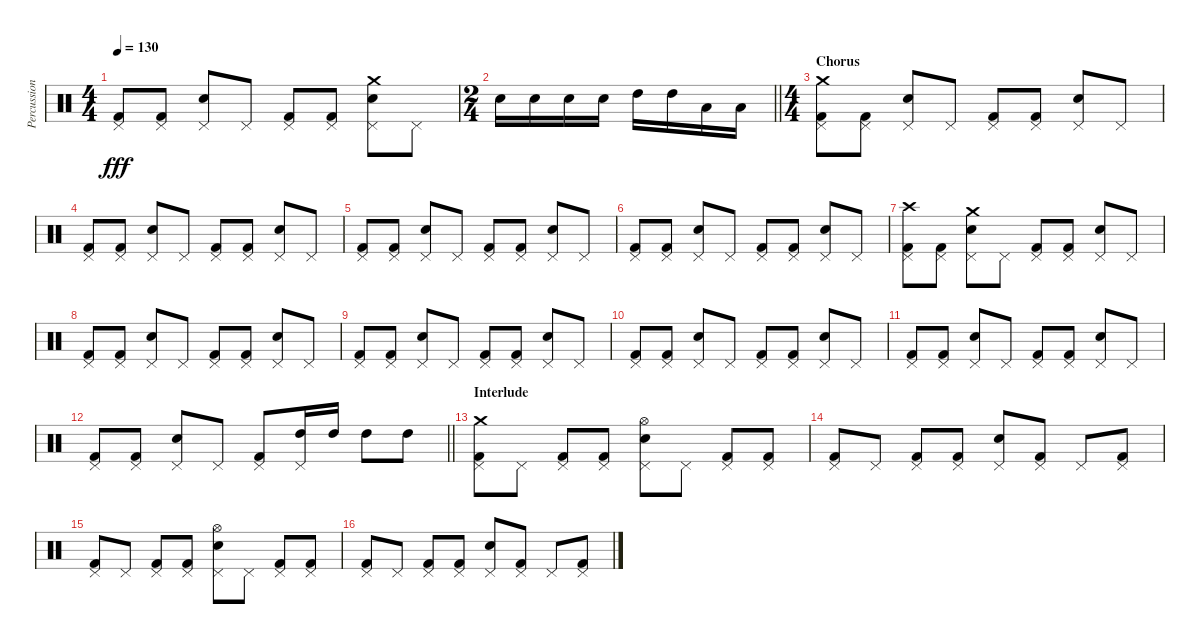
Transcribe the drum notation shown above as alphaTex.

\track ("Percussion" "Percussion") {instrument percussion}
\staff {score}
\articulation defaults
\ts (4 4)
\tempo 130
\clef neutral
\ks c
("Pedal Hi-Hat (hit)" "Kick (hit) 2").8{dy fff} ("Pedal Hi-Hat (hit)" "Kick (hit) 2").8 ("Pedal Hi-Hat (hit)" "Electric Snare (hit)").8 "Pedal Hi-Hat (hit)".8 ("Pedal Hi-Hat (hit)" "Kick (hit) 2").8 ("Pedal Hi-Hat (hit)" "Kick (hit) 2").8 ("Pedal Hi-Hat (hit)" "Crash medium (hit)" "Electric Snare (hit)").8 "Pedal Hi-Hat (hit)".8 |
\ts (2 4)
\barLineRight lightlight "Electric Snare (hit)".16 "Electric Snare (hit)".16 "Electric Snare (hit)".16 "Electric Snare (hit)".16 "High Tom (hit)".16 "High Tom (hit)".16 "Low Tom (hit)".16 "Low Tom (hit)".16
|
\ts (4 4)
\section ("" "Chorus")
("Pedal Hi-Hat (hit)" "Crash medium (hit)" "Kick (hit) 2").8 ("Pedal Hi-Hat (hit)" "Kick (hit) 2").8 ("Pedal Hi-Hat (hit)" "Electric Snare (hit)").8 "Pedal Hi-Hat (hit)".8 ("Pedal Hi-Hat (hit)" "Kick (hit) 2").8 ("Pedal Hi-Hat (hit)" "Kick (hit) 2").8 ("Pedal Hi-Hat (hit)" "Electric Snare (hit)").8 "Pedal Hi-Hat (hit)".8 |
("Pedal Hi-Hat (hit)" "Kick (hit) 2").8 ("Pedal Hi-Hat (hit)" "Kick (hit) 2").8 ("Pedal Hi-Hat (hit)" "Electric Snare (hit)").8 "Pedal Hi-Hat (hit)".8 ("Pedal Hi-Hat (hit)" "Kick (hit) 2").8 ("Pedal Hi-Hat (hit)" "Kick (hit) 2").8 ("Pedal Hi-Hat (hit)" "Electric Snare (hit)").8 "Pedal Hi-Hat (hit)".8 |
("Pedal Hi-Hat (hit)" "Kick (hit) 2").8 ("Pedal Hi-Hat (hit)" "Kick (hit) 2").8 ("Pedal Hi-Hat (hit)" "Electric Snare (hit)").8 "Pedal Hi-Hat (hit)".8 ("Pedal Hi-Hat (hit)" "Kick (hit) 2").8 ("Pedal Hi-Hat (hit)" "Kick (hit) 2").8 ("Pedal Hi-Hat (hit)" "Electric Snare (hit)").8 "Pedal Hi-Hat (hit)".8 |
("Pedal Hi-Hat (hit)" "Kick (hit) 2").8 ("Pedal Hi-Hat (hit)" "Kick (hit) 2").8 ("Pedal Hi-Hat (hit)" "Electric Snare (hit)").8 "Pedal Hi-Hat (hit)".8 ("Pedal Hi-Hat (hit)" "Kick (hit) 2").8 ("Pedal Hi-Hat (hit)" "Kick (hit) 2").8 ("Pedal Hi-Hat (hit)" "Electric Snare (hit)").8 "Pedal Hi-Hat (hit)".8 |
("Pedal Hi-Hat (hit)" "Crash high (hit)" "Kick (hit) 2").8 ("Pedal Hi-Hat (hit)" "Kick (hit) 2").8 ("Pedal Hi-Hat (hit)" "Crash medium (hit)" "Electric Snare (hit)").8 "Pedal Hi-Hat (hit)".8 ("Pedal Hi-Hat (hit)" "Kick (hit) 2").8 ("Pedal Hi-Hat (hit)" "Kick (hit) 2").8 ("Pedal Hi-Hat (hit)" "Electric Snare (hit)").8 "Pedal Hi-Hat (hit)".8 |
("Pedal Hi-Hat (hit)" "Kick (hit) 2").8 ("Pedal Hi-Hat (hit)" "Kick (hit) 2").8 ("Pedal Hi-Hat (hit)" "Electric Snare (hit)").8 "Pedal Hi-Hat (hit)".8 ("Pedal Hi-Hat (hit)" "Kick (hit) 2").8 ("Pedal Hi-Hat (hit)" "Kick (hit) 2").8 ("Pedal Hi-Hat (hit)" "Electric Snare (hit)").8 "Pedal Hi-Hat (hit)".8 |
("Pedal Hi-Hat (hit)" "Kick (hit) 2").8 ("Pedal Hi-Hat (hit)" "Kick (hit) 2").8 ("Pedal Hi-Hat (hit)" "Electric Snare (hit)").8 "Pedal Hi-Hat (hit)".8 ("Pedal Hi-Hat (hit)" "Kick (hit) 2").8 ("Pedal Hi-Hat (hit)" "Kick (hit) 2").8 ("Pedal Hi-Hat (hit)" "Electric Snare (hit)").8 "Pedal Hi-Hat (hit)".8 |
("Pedal Hi-Hat (hit)" "Kick (hit) 2").8 ("Pedal Hi-Hat (hit)" "Kick (hit) 2").8 ("Pedal Hi-Hat (hit)" "Electric Snare (hit)").8 "Pedal Hi-Hat (hit)".8 ("Pedal Hi-Hat (hit)" "Kick (hit) 2").8 ("Pedal Hi-Hat (hit)" "Kick (hit) 2").8 ("Pedal Hi-Hat (hit)" "Electric Snare (hit)").8 "Pedal Hi-Hat (hit)".8 |
("Pedal Hi-Hat (hit)" "Kick (hit) 2").8 ("Pedal Hi-Hat (hit)" "Kick (hit) 2").8 ("Pedal Hi-Hat (hit)" "Electric Snare (hit)").8 "Pedal Hi-Hat (hit)".8 ("Pedal Hi-Hat (hit)" "Kick (hit) 2").8 ("Pedal Hi-Hat (hit)" "Kick (hit) 2").8 ("Pedal Hi-Hat (hit)" "Electric Snare (hit)").8 "Pedal Hi-Hat (hit)".8 |
\barLineRight lightlight
("Pedal Hi-Hat (hit)" "Kick (hit) 2").8 ("Pedal Hi-Hat (hit)" "Kick (hit) 2").8 ("Pedal Hi-Hat (hit)" "Electric Snare (hit)").8 "Pedal Hi-Hat (hit)".8 ("Pedal Hi-Hat (hit)" "Kick (hit) 2").8 ("Pedal Hi-Hat (hit)" "High Tom (hit)").16 "High Tom (hit)".16 "High Tom (hit)".8 "High Tom (hit)".8 |
\section ("" "Interlude")
("Pedal Hi-Hat (hit)" "Crash medium (hit)" "Kick (hit) 2").8 "Pedal Hi-Hat (hit)".8 ("Pedal Hi-Hat (hit)" "Kick (hit) 2").8 ("Pedal Hi-Hat (hit)" "Kick (hit) 2").8 ("Pedal Hi-Hat (hit)" "Hi-Hat (open)" "Electric Snare (hit)").8 "Pedal Hi-Hat (hit)".8 ("Pedal Hi-Hat (hit)" "Kick (hit) 2").8 ("Pedal Hi-Hat (hit)" "Kick (hit) 2").8 |
("Pedal Hi-Hat (hit)" "Kick (hit) 2").8 "Pedal Hi-Hat (hit)".8 ("Pedal Hi-Hat (hit)" "Kick (hit) 2").8 ("Pedal Hi-Hat (hit)" "Kick (hit) 2").8 ("Pedal Hi-Hat (hit)" "Electric Snare (hit)").8 ("Pedal Hi-Hat (hit)" "Kick (hit) 2").8 "Pedal Hi-Hat (hit)".8 ("Pedal Hi-Hat (hit)" "Kick (hit) 2").8 |
("Pedal Hi-Hat (hit)" "Kick (hit) 2").8 "Pedal Hi-Hat (hit)".8 ("Pedal Hi-Hat (hit)" "Kick (hit) 2").8 ("Pedal Hi-Hat (hit)" "Kick (hit) 2").8 ("Pedal Hi-Hat (hit)" "Hi-Hat (open)" "Electric Snare (hit)").8 "Pedal Hi-Hat (hit)".8 ("Pedal Hi-Hat (hit)" "Kick (hit) 2").8 ("Pedal Hi-Hat (hit)" "Kick (hit) 2").8 |
("Pedal Hi-Hat (hit)" "Kick (hit) 2").8 "Pedal Hi-Hat (hit)".8 ("Pedal Hi-Hat (hit)" "Kick (hit) 2").8 ("Pedal Hi-Hat (hit)" "Kick (hit) 2").8 ("Pedal Hi-Hat (hit)" "Electric Snare (hit)").8 ("Pedal Hi-Hat (hit)" "Kick (hit) 2").8 "Pedal Hi-Hat (hit)".8 ("Pedal Hi-Hat (hit)" "Kick (hit) 2").8
